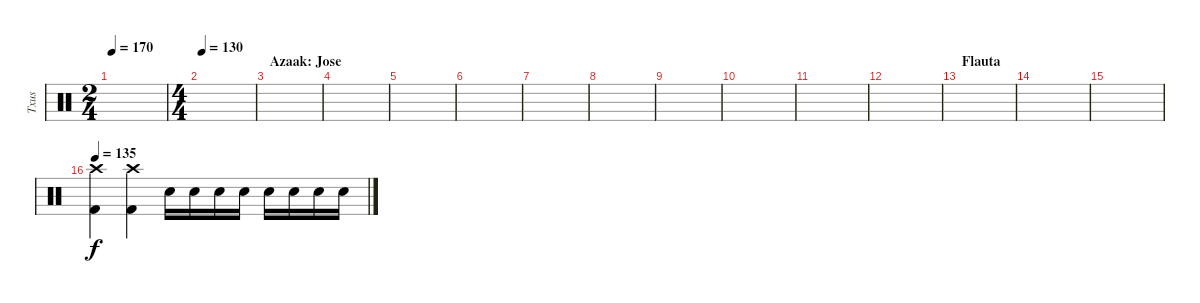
\track ("Txus" "Txus") {instrument percussion}
\staff {score}
\articulation defaults
\ts (2 4)
\tempo 170
\clef neutral
\ks c
|
\ts (4 4)
\tempo 130
|
\section ("" "Azaak: Jose")
|
|
|
|
|
|
|
|
|
|
\section ("" "Flauta")
|
|
|
\tempo 135
("Kick (hit) 2" "Crash high (hit)").4 ("Kick (hit) 2" "Crash high (hit)").4 "Electric Snare (hit)".16 "Electric Snare (hit)".16 "Electric Snare (hit)".16 "Electric Snare (hit)".16 "Electric Snare (hit)".16 "Electric Snare (hit)".16 "Electric Snare (hit)".16 "Electric Snare (hit)".16
